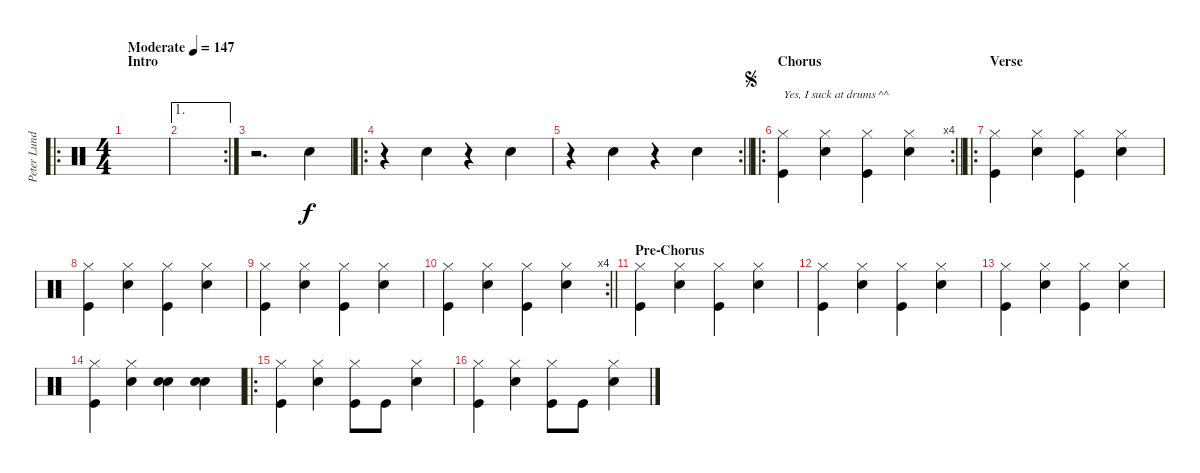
\track ("Peter Lundholm Jensen" "Peter Lund") {instrument percussion}
\staff {score}
\articulation defaults
\ro
\ts (4 4)
\section ("" "Intro")
\tempo (147 "Moderate")
\clef neutral
\ks c
|
\ae 1
\rc 2
|
r.2{d} "Snare (hit) 2".4 |
\ro
r.4 "Snare (hit) 2".4 r.4 "Snare (hit) 2".4 |
\rc 2
\barLineRight lightlight
r.4 "Snare (hit) 2".4 r.4 "Snare (hit) 2".4 |
\ro
\rc 4
\section ("" "Chorus")
\jump segno
\barLineRight lightlight
("Kick (hit)" "Hi-Hat (closed)").4{txt "Yes, I suck at drums ^^"} ("Snare (hit) 2" "Hi-Hat (closed)").4 ("Kick (hit)" "Hi-Hat (closed)").4 ("Snare (hit) 2" "Hi-Hat (closed)").4 |
\ro
\section ("" "Verse")
("Kick (hit)" "Hi-Hat (closed)").4 ("Snare (hit) 2" "Hi-Hat (closed)").4 ("Kick (hit)" "Hi-Hat (closed)").4 ("Snare (hit) 2" "Hi-Hat (closed)").4 |
("Kick (hit)" "Hi-Hat (closed)").4 ("Snare (hit) 2" "Hi-Hat (closed)").4 ("Kick (hit)" "Hi-Hat (closed)").4 ("Snare (hit) 2" "Hi-Hat (closed)").4 |
("Kick (hit)" "Hi-Hat (closed)").4 ("Snare (hit) 2" "Hi-Hat (closed)").4 ("Kick (hit)" "Hi-Hat (closed)").4 ("Snare (hit) 2" "Hi-Hat (closed)").4 |
\rc 4
\barLineRight lightlight
("Kick (hit)" "Hi-Hat (closed)").4 ("Snare (hit) 2" "Hi-Hat (closed)").4 ("Kick (hit)" "Hi-Hat (closed)").4 ("Snare (hit) 2" "Hi-Hat (closed)").4 |
\section ("" "Pre-Chorus")
("Kick (hit)" "Hi-Hat (closed)").4 ("Snare (hit) 2" "Hi-Hat (closed)").4 ("Kick (hit)" "Hi-Hat (closed)").4 ("Snare (hit) 2" "Hi-Hat (closed)").4 |
("Kick (hit)" "Hi-Hat (closed)").4 ("Snare (hit) 2" "Hi-Hat (closed)").4 ("Kick (hit)" "Hi-Hat (closed)").4 ("Snare (hit) 2" "Hi-Hat (closed)").4 |
("Kick (hit)" "Hi-Hat (closed)").4 ("Snare (hit) 2" "Hi-Hat (closed)").4 ("Kick (hit)" "Hi-Hat (closed)").4 ("Snare (hit) 2" "Hi-Hat (closed)").4 |
("Kick (hit)" "Hi-Hat (closed)").4 ("Snare (hit) 2" "Hi-Hat (closed)").4 ("Snare (hit) 2" "Electric Snare (hit)").4 ("Snare (hit) 2" "Electric Snare (hit)").4 |
\ro
("Kick (hit)" "Hi-Hat (closed)").4 ("Snare (hit) 2" "Hi-Hat (closed)").4 ("Kick (hit)" "Hi-Hat (closed)").8 "Kick (hit)".8 ("Snare (hit) 2" "Hi-Hat (closed)").4 |
("Kick (hit)" "Hi-Hat (closed)").4 ("Snare (hit) 2" "Hi-Hat (closed)").4 ("Kick (hit)" "Hi-Hat (closed)").8 "Kick (hit)".8 ("Snare (hit) 2" "Hi-Hat (closed)").4
